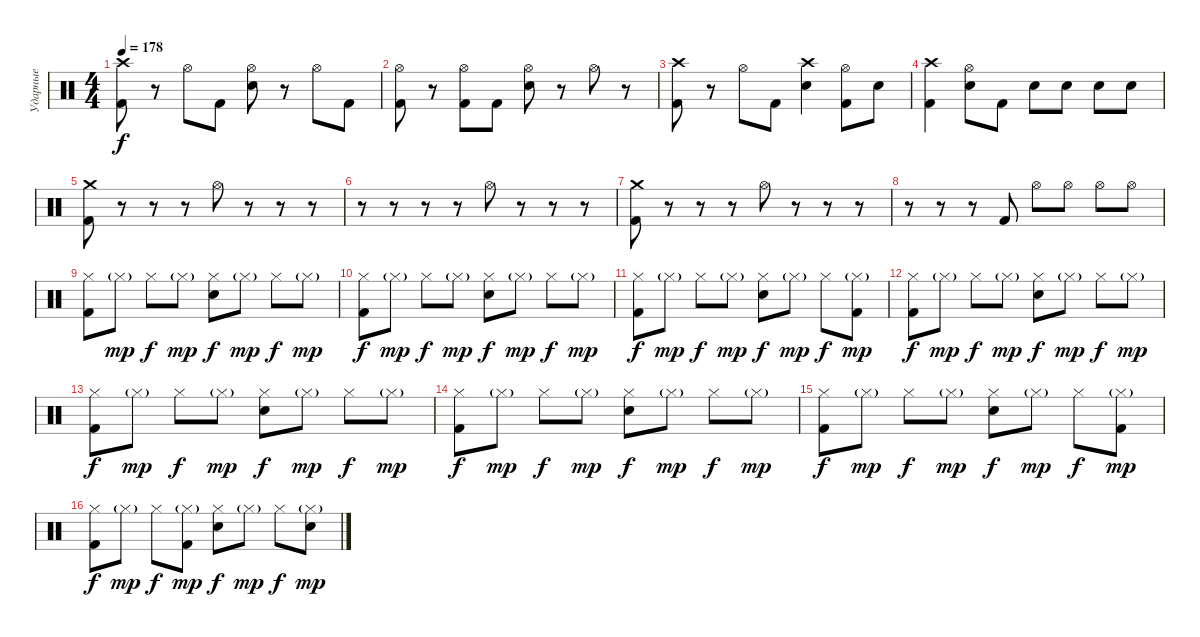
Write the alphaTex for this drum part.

\track ("Ударные" "Ударные") {instrument percussion}
\staff {score}
\articulation defaults
\ts (4 4)
\tempo 178
\clef neutral
\ks c
("Crash high (hit)" "Kick (hit) 2").8{dy f} r.8 "Hi-Hat (open)".8 "Kick (hit) 2".8 ("Hi-Hat (open)" "Snare (hit) 2").8 r.8 "Hi-Hat (open)".8 "Kick (hit) 2".8 |
("Hi-Hat (open)" "Kick (hit) 2").8 r.8 ("Hi-Hat (open)" "Kick (hit) 2").8 "Kick (hit) 2".8 ("Hi-Hat (open)" "Snare (hit) 2").8 r.8 "Hi-Hat (open)".8 r.8 |
("Crash high (hit)" "Kick (hit) 2").8 r.8 "Hi-Hat (open)".8 "Kick (hit) 2".8 ("Crash high (hit)" "Snare (hit) 2").4 ("Hi-Hat (open)" "Kick (hit) 2").8 "Snare (hit) 2".8 |
("Crash high (hit)" "Kick (hit) 2").4 ("Hi-Hat (open)" "Snare (hit) 2").8 "Kick (hit) 2".8 "Snare (hit) 2".8 "Snare (hit) 2".8 "Snare (hit) 2".8 "Snare (hit) 2".8 |
("Crash medium (hit)" "Kick (hit) 2").8 r.8 r.8 r.8 "Hi-Hat (open)".8 r.8 r.8 r.8 |
r.8 r.8 r.8 r.8 "Hi-Hat (open)".8 r.8 r.8 r.8 |
("Crash medium (hit)" "Kick (hit) 2").8 r.8 r.8 r.8 "Hi-Hat (open)".8 r.8 r.8 r.8 |
r.8 r.8 r.8 "Kick (hit) 2".8 "Hi-Hat (open)".8 "Hi-Hat (open)".8 "Hi-Hat (open)".8 "Hi-Hat (open)".8 |
("Hi-Hat (closed)" "Kick (hit) 2").8 "Hi-Hat (closed)"{g}.8{dy mp} "Hi-Hat (closed)".8{dy f} "Hi-Hat (closed)"{g}.8{dy mp} ("Hi-Hat (closed)" "Snare (hit) 2").8{dy f} "Hi-Hat (closed)"{g}.8{dy mp} "Hi-Hat (closed)".8{dy f} "Hi-Hat (closed)"{g}.8{dy mp} |
("Hi-Hat (closed)" "Kick (hit) 2").8{dy f} "Hi-Hat (closed)"{g}.8{dy mp} "Hi-Hat (closed)".8{dy f} "Hi-Hat (closed)"{g}.8{dy mp} ("Hi-Hat (closed)" "Snare (hit) 2").8{dy f} "Hi-Hat (closed)"{g}.8{dy mp} "Hi-Hat (closed)".8{dy f} "Hi-Hat (closed)"{g}.8{dy mp} |
("Hi-Hat (closed)" "Kick (hit) 2").8{dy f} "Hi-Hat (closed)"{g}.8{dy mp} "Hi-Hat (closed)".8{dy f} "Hi-Hat (closed)"{g}.8{dy mp} ("Hi-Hat (closed)" "Snare (hit) 2").8{dy f} "Hi-Hat (closed)"{g}.8{dy mp} "Hi-Hat (closed)".8{dy f} ("Hi-Hat (closed)"{g} "Kick (hit) 2").8{dy mp} |
("Hi-Hat (closed)" "Kick (hit) 2").8{dy f} "Hi-Hat (closed)"{g}.8{dy mp} "Hi-Hat (closed)".8{dy f} "Hi-Hat (closed)"{g}.8{dy mp} ("Hi-Hat (closed)" "Snare (hit) 2").8{dy f} "Hi-Hat (closed)"{g}.8{dy mp} "Hi-Hat (closed)".8{dy f} "Hi-Hat (closed)"{g}.8{dy mp} |
("Hi-Hat (closed)" "Kick (hit) 2").8{dy f} "Hi-Hat (closed)"{g}.8{dy mp} "Hi-Hat (closed)".8{dy f} "Hi-Hat (closed)"{g}.8{dy mp} ("Hi-Hat (closed)" "Snare (hit) 2").8{dy f} "Hi-Hat (closed)"{g}.8{dy mp} "Hi-Hat (closed)".8{dy f} "Hi-Hat (closed)"{g}.8{dy mp} |
("Hi-Hat (closed)" "Kick (hit) 2").8{dy f} "Hi-Hat (closed)"{g}.8{dy mp} "Hi-Hat (closed)".8{dy f} "Hi-Hat (closed)"{g}.8{dy mp} ("Hi-Hat (closed)" "Snare (hit) 2").8{dy f} "Hi-Hat (closed)"{g}.8{dy mp} "Hi-Hat (closed)".8{dy f} "Hi-Hat (closed)"{g}.8{dy mp} |
("Hi-Hat (closed)" "Kick (hit) 2").8{dy f} "Hi-Hat (closed)"{g}.8{dy mp} "Hi-Hat (closed)".8{dy f} "Hi-Hat (closed)"{g}.8{dy mp} ("Hi-Hat (closed)" "Snare (hit) 2").8{dy f} "Hi-Hat (closed)"{g}.8{dy mp} "Hi-Hat (closed)".8{dy f} ("Hi-Hat (closed)"{g} "Kick (hit) 2").8{dy mp} |
("Hi-Hat (closed)" "Kick (hit) 2").8{dy f} "Hi-Hat (closed)"{g}.8{dy mp} "Hi-Hat (closed)".8{dy f} ("Hi-Hat (closed)"{g} "Kick (hit) 2").8{dy mp} ("Hi-Hat (closed)" "Snare (hit) 2").8{dy f} "Hi-Hat (closed)"{g}.8{dy mp} "Hi-Hat (closed)".8{dy f} ("Hi-Hat (closed)"{g} "Snare (hit) 2").8{dy mp}
